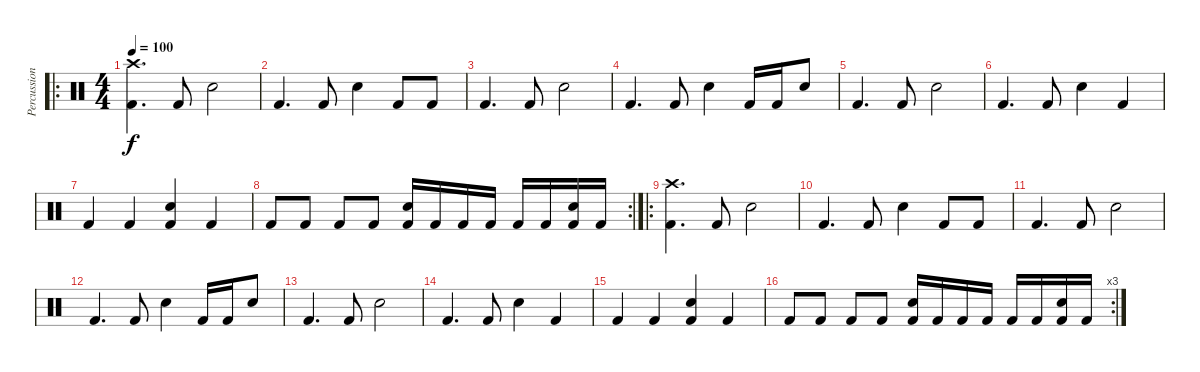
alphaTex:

\track ("Percussions" "Percussion") {instrument percussion}
\staff {score}
\articulation defaults
\ro
\ts (4 4)
\tempo 100
\clef neutral
\ks c
("Crash high (hit)" "Kick (hit) 2").4{d dy f} "Kick (hit) 2".8 "Snare (hit) 2".2 |
"Kick (hit) 2".4{d} "Kick (hit) 2".8 "Snare (hit) 2".4 "Kick (hit) 2".8 "Kick (hit) 2".8 |
"Kick (hit) 2".4{d} "Kick (hit) 2".8 "Snare (hit) 2".2 |
"Kick (hit) 2".4{d} "Kick (hit) 2".8 "Snare (hit) 2".4 "Kick (hit) 2".16 "Kick (hit) 2".16 "Snare (hit) 2".8 |
"Kick (hit) 2".4{d} "Kick (hit) 2".8 "Snare (hit) 2".2 |
"Kick (hit) 2".4{d} "Kick (hit) 2".8 "Snare (hit) 2".4 "Kick (hit) 2".4 |
"Kick (hit) 2".4 "Kick (hit) 2".4 ("Snare (hit) 2" "Kick (hit) 2").4 "Kick (hit) 2".4 |
\rc 2 "Kick (hit) 2".8 "Kick (hit) 2".8 "Kick (hit) 2".8 "Kick (hit) 2".8
("Snare (hit) 2" "Kick (hit) 2").16 "Kick (hit) 2".16 "Kick (hit) 2".16 "Kick (hit) 2".16 "Kick (hit) 2".16 "Kick (hit) 2".16 ("Snare (hit) 2" "Kick (hit) 2").16 "Kick (hit) 2".16 |
\ro
("Crash high (hit)" "Kick (hit) 2").4{d} "Kick (hit) 2".8 "Snare (hit) 2".2 |
"Kick (hit) 2".4{d} "Kick (hit) 2".8 "Snare (hit) 2".4 "Kick (hit) 2".8 "Kick (hit) 2".8 |
"Kick (hit) 2".4{d} "Kick (hit) 2".8 "Snare (hit) 2".2 |
"Kick (hit) 2".4{d} "Kick (hit) 2".8 "Snare (hit) 2".4 "Kick (hit) 2".16 "Kick (hit) 2".16 "Snare (hit) 2".8 |
"Kick (hit) 2".4{d} "Kick (hit) 2".8 "Snare (hit) 2".2 |
"Kick (hit) 2".4{d} "Kick (hit) 2".8 "Snare (hit) 2".4 "Kick (hit) 2".4 |
"Kick (hit) 2".4 "Kick (hit) 2".4 ("Snare (hit) 2" "Kick (hit) 2").4 "Kick (hit) 2".4 |
\rc 3 "Kick (hit) 2".8 "Kick (hit) 2".8 "Kick (hit) 2".8 "Kick (hit) 2".8
("Snare (hit) 2" "Kick (hit) 2").16 "Kick (hit) 2".16 "Kick (hit) 2".16 "Kick (hit) 2".16 "Kick (hit) 2".16 "Kick (hit) 2".16 ("Snare (hit) 2" "Kick (hit) 2").16 "Kick (hit) 2".16
